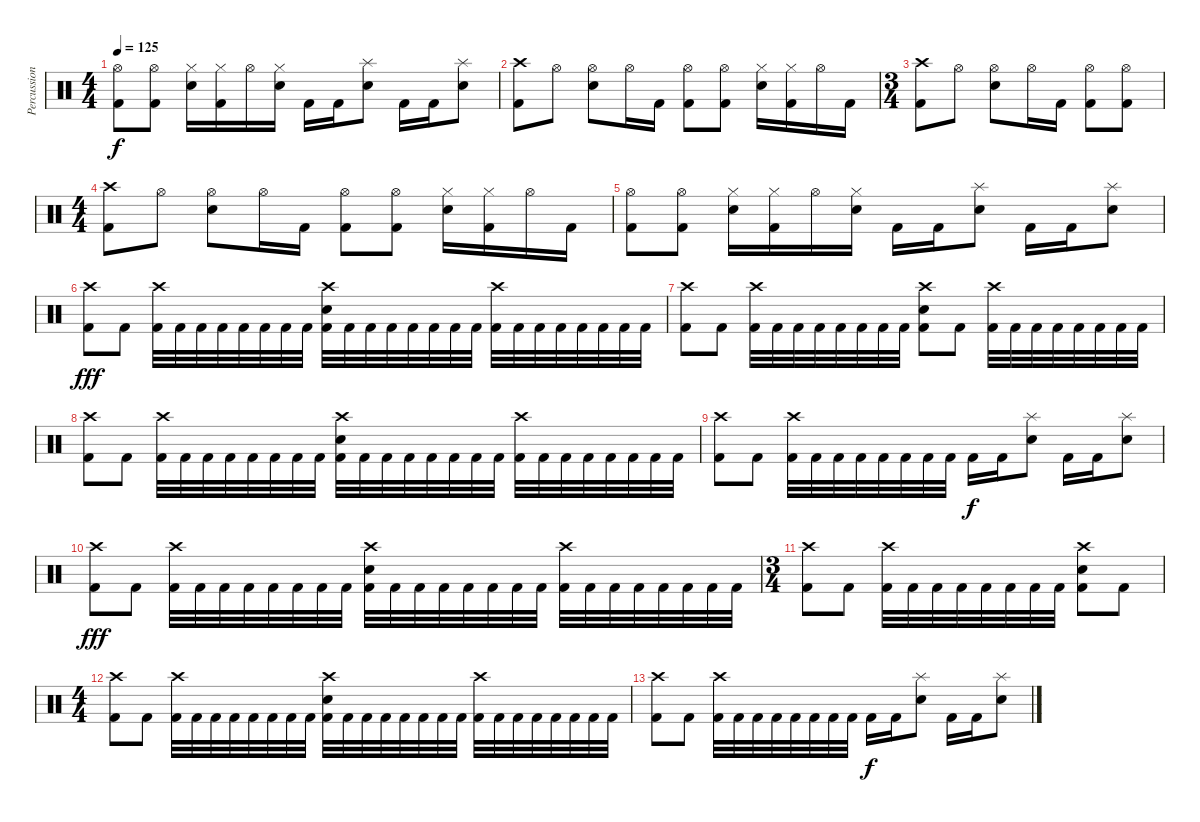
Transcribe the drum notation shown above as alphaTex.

\track ("Percussions" "Percussion") {instrument percussion}
\staff {score}
\articulation defaults
\ts (4 4)
\tempo 125
\clef neutral
\ks c
("Hi-Hat (open)" "Kick (hit) 2").8{dy f} ("Hi-Hat (open)" "Kick (hit) 2").8 ("Hi-Hat (closed)" "Electric Snare (hit)").16 ("Hi-Hat (closed)" "Kick (hit) 2").16 "Hi-Hat (open)".16 ("Hi-Hat (closed)" "Electric Snare (hit)").16 "Kick (hit) 2".16 "Kick (hit) 2".16 ("Splash (hit)" "Electric Snare (hit)").8 "Kick (hit) 2".16 "Kick (hit) 2".16 ("Splash (hit)" "Electric Snare (hit)").8 |
("Crash high (hit)" "Kick (hit) 2").8 "Hi-Hat (open)".8 ("Hi-Hat (open)" "Electric Snare (hit)").8 "Hi-Hat (open)".16 "Kick (hit) 2".16 ("Hi-Hat (open)" "Kick (hit) 2").8 ("Hi-Hat (open)" "Kick (hit) 2").8 ("Hi-Hat (closed)" "Electric Snare (hit)").16 ("Hi-Hat (closed)" "Kick (hit) 2").16 "Hi-Hat (open)".16 "Kick (hit) 2".16 |
\ts (3 4)
("Crash high (hit)" "Kick (hit) 2").8 "Hi-Hat (open)".8 ("Hi-Hat (open)" "Electric Snare (hit)").8 "Hi-Hat (open)".16 "Kick (hit) 2".16 ("Hi-Hat (open)" "Kick (hit) 2").8 ("Hi-Hat (open)" "Kick (hit) 2").8 |
\ts (4 4)
("Crash high (hit)" "Kick (hit) 2").8 "Hi-Hat (open)".8 ("Hi-Hat (open)" "Electric Snare (hit)").8 "Hi-Hat (open)".16 "Kick (hit) 2".16 ("Hi-Hat (open)" "Kick (hit) 2").8 ("Hi-Hat (open)" "Kick (hit) 2").8 ("Hi-Hat (closed)" "Electric Snare (hit)").16 ("Hi-Hat (closed)" "Kick (hit) 2").16 "Hi-Hat (open)".16 "Kick (hit) 2".16 |
("Hi-Hat (open)" "Kick (hit) 2").8 ("Hi-Hat (open)" "Kick (hit) 2").8 ("Hi-Hat (closed)" "Electric Snare (hit)").16 ("Hi-Hat (closed)" "Kick (hit) 2").16 "Hi-Hat (open)".16 ("Hi-Hat (closed)" "Electric Snare (hit)").16 "Kick (hit) 2".16 "Kick (hit) 2".16 ("Splash (hit)" "Electric Snare (hit)").8 "Kick (hit) 2".16 "Kick (hit) 2".16 ("Splash (hit)" "Electric Snare (hit)").8 |
("Crash high (hit)" "Kick (hit) 2").8{dy fff} "Kick (hit) 2".8 ("Crash high (hit)" "Kick (hit) 2").32 "Kick (hit) 2".32 "Kick (hit) 2".32 "Kick (hit) 2".32 "Kick (hit) 2".32 "Kick (hit) 2".32 "Kick (hit) 2".32 "Kick (hit) 2".32 ("Crash high (hit)" "Electric Snare (hit)" "Kick (hit) 2").32 "Kick (hit) 2".32 "Kick (hit) 2".32 "Kick (hit) 2".32 "Kick (hit) 2".32 "Kick (hit) 2".32 "Kick (hit) 2".32 "Kick (hit) 2".32 ("Crash high (hit)" "Kick (hit) 2").32 "Kick (hit) 2".32 "Kick (hit) 2".32 "Kick (hit) 2".32 "Kick (hit) 2".32 "Kick (hit) 2".32 "Kick (hit) 2".32 "Kick (hit) 2".32 |
("Crash high (hit)" "Kick (hit) 2").8 "Kick (hit) 2".8 ("Crash high (hit)" "Kick (hit) 2").32 "Kick (hit) 2".32 "Kick (hit) 2".32 "Kick (hit) 2".32 "Kick (hit) 2".32 "Kick (hit) 2".32 "Kick (hit) 2".32 "Kick (hit) 2".32 ("Crash high (hit)" "Electric Snare (hit)" "Kick (hit) 2").8 "Kick (hit) 2".8 ("Crash high (hit)" "Kick (hit) 2").32 "Kick (hit) 2".32 "Kick (hit) 2".32 "Kick (hit) 2".32 "Kick (hit) 2".32 "Kick (hit) 2".32 "Kick (hit) 2".32 "Kick (hit) 2".32 |
("Crash high (hit)" "Kick (hit) 2").8 "Kick (hit) 2".8 ("Crash high (hit)" "Kick (hit) 2").32 "Kick (hit) 2".32 "Kick (hit) 2".32 "Kick (hit) 2".32 "Kick (hit) 2".32 "Kick (hit) 2".32 "Kick (hit) 2".32 "Kick (hit) 2".32 ("Crash high (hit)" "Electric Snare (hit)" "Kick (hit) 2").32 "Kick (hit) 2".32 "Kick (hit) 2".32 "Kick (hit) 2".32 "Kick (hit) 2".32 "Kick (hit) 2".32 "Kick (hit) 2".32 "Kick (hit) 2".32 ("Crash high (hit)" "Kick (hit) 2").32 "Kick (hit) 2".32 "Kick (hit) 2".32 "Kick (hit) 2".32 "Kick (hit) 2".32 "Kick (hit) 2".32 "Kick (hit) 2".32 "Kick (hit) 2".32 |
("Crash high (hit)" "Kick (hit) 2").8 "Kick (hit) 2".8 ("Crash high (hit)" "Kick (hit) 2").32 "Kick (hit) 2".32 "Kick (hit) 2".32 "Kick (hit) 2".32 "Kick (hit) 2".32 "Kick (hit) 2".32 "Kick (hit) 2".32 "Kick (hit) 2".32 "Kick (hit) 2".16{dy f} "Kick (hit) 2".16 ("Splash (hit)" "Electric Snare (hit)").8 "Kick (hit) 2".16 "Kick (hit) 2".16 ("Splash (hit)" "Electric Snare (hit)").8 |
("Crash high (hit)" "Kick (hit) 2").8{dy fff} "Kick (hit) 2".8 ("Crash high (hit)" "Kick (hit) 2").32 "Kick (hit) 2".32 "Kick (hit) 2".32 "Kick (hit) 2".32 "Kick (hit) 2".32 "Kick (hit) 2".32 "Kick (hit) 2".32 "Kick (hit) 2".32 ("Crash high (hit)" "Electric Snare (hit)" "Kick (hit) 2").32 "Kick (hit) 2".32 "Kick (hit) 2".32 "Kick (hit) 2".32 "Kick (hit) 2".32 "Kick (hit) 2".32 "Kick (hit) 2".32 "Kick (hit) 2".32 ("Crash high (hit)" "Kick (hit) 2").32 "Kick (hit) 2".32 "Kick (hit) 2".32 "Kick (hit) 2".32 "Kick (hit) 2".32 "Kick (hit) 2".32 "Kick (hit) 2".32 "Kick (hit) 2".32 |
\ts (3 4)
("Crash high (hit)" "Kick (hit) 2").8 "Kick (hit) 2".8 ("Crash high (hit)" "Kick (hit) 2").32 "Kick (hit) 2".32 "Kick (hit) 2".32 "Kick (hit) 2".32 "Kick (hit) 2".32 "Kick (hit) 2".32 "Kick (hit) 2".32 "Kick (hit) 2".32 ("Crash high (hit)" "Electric Snare (hit)" "Kick (hit) 2").8 "Kick (hit) 2".8 |
\ts (4 4)
("Crash high (hit)" "Kick (hit) 2").8 "Kick (hit) 2".8 ("Crash high (hit)" "Kick (hit) 2").32 "Kick (hit) 2".32 "Kick (hit) 2".32 "Kick (hit) 2".32 "Kick (hit) 2".32 "Kick (hit) 2".32 "Kick (hit) 2".32 "Kick (hit) 2".32 ("Crash high (hit)" "Electric Snare (hit)" "Kick (hit) 2").32 "Kick (hit) 2".32 "Kick (hit) 2".32 "Kick (hit) 2".32 "Kick (hit) 2".32 "Kick (hit) 2".32 "Kick (hit) 2".32 "Kick (hit) 2".32 ("Crash high (hit)" "Kick (hit) 2").32 "Kick (hit) 2".32 "Kick (hit) 2".32 "Kick (hit) 2".32 "Kick (hit) 2".32 "Kick (hit) 2".32 "Kick (hit) 2".32 "Kick (hit) 2".32 |
("Crash high (hit)" "Kick (hit) 2").8 "Kick (hit) 2".8 ("Crash high (hit)" "Kick (hit) 2").32 "Kick (hit) 2".32 "Kick (hit) 2".32 "Kick (hit) 2".32 "Kick (hit) 2".32 "Kick (hit) 2".32 "Kick (hit) 2".32 "Kick (hit) 2".32 "Kick (hit) 2".16{dy f} "Kick (hit) 2".16 ("Splash (hit)" "Electric Snare (hit)").8 "Kick (hit) 2".16 "Kick (hit) 2".16 ("Splash (hit)" "Electric Snare (hit)").8
